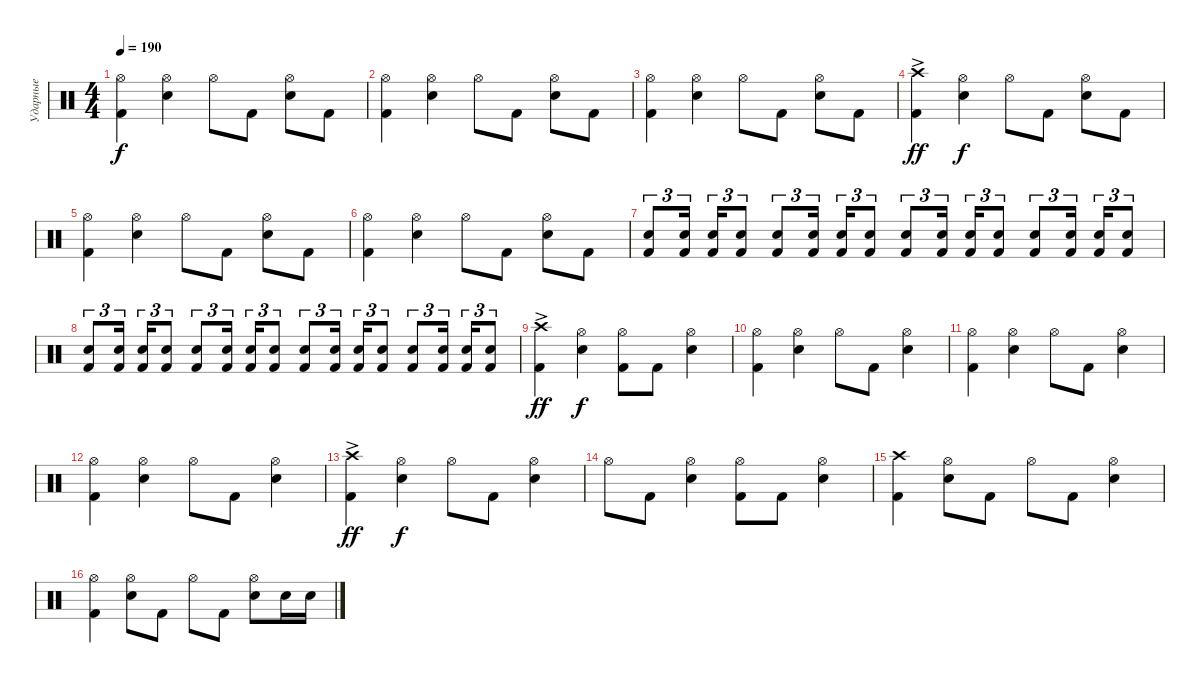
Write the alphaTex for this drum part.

\track ("Ударные" "Ударные") {instrument percussion}
\staff {score}
\articulation defaults
\ts (4 4)
\tempo 190
\clef neutral
\ks c
("Kick (hit) 2" "Hi-Hat (open)").4{dy f} ("Snare (hit) 2" "Hi-Hat (open)").4 "Hi-Hat (open)".8 "Kick (hit) 2".8 ("Snare (hit) 2" "Hi-Hat (open)").8 "Kick (hit) 2".8 |
("Kick (hit) 2" "Hi-Hat (open)").4 ("Snare (hit) 2" "Hi-Hat (open)").4 "Hi-Hat (open)".8 "Kick (hit) 2".8 ("Snare (hit) 2" "Hi-Hat (open)").8 "Kick (hit) 2".8 |
("Kick (hit) 2" "Hi-Hat (open)").4 ("Snare (hit) 2" "Hi-Hat (open)").4 "Hi-Hat (open)".8 "Kick (hit) 2".8 ("Snare (hit) 2" "Hi-Hat (open)").8 "Kick (hit) 2".8 |
("Kick (hit) 2" "Crash high (hit)"{ac}).4{dy ff} ("Snare (hit) 2" "Hi-Hat (open)").4{dy f} "Hi-Hat (open)".8 "Kick (hit) 2".8 ("Snare (hit) 2" "Hi-Hat (open)").8 "Kick (hit) 2".8 |
("Kick (hit) 2" "Hi-Hat (open)").4 ("Snare (hit) 2" "Hi-Hat (open)").4 "Hi-Hat (open)".8 "Kick (hit) 2".8 ("Snare (hit) 2" "Hi-Hat (open)").8 "Kick (hit) 2".8 |
("Kick (hit) 2" "Hi-Hat (open)").4 ("Snare (hit) 2" "Hi-Hat (open)").4 "Hi-Hat (open)".8 "Kick (hit) 2".8 ("Snare (hit) 2" "Hi-Hat (open)").8 "Kick (hit) 2".8 |
("Kick (hit) 2" "Electric Snare (hit)").8{tu (3 2)} ("Kick (hit) 2" "Electric Snare (hit)").16{tu (3 2) beam splitsecondary} ("Kick (hit) 2" "Electric Snare (hit)").16{tu (3 2)} ("Kick (hit) 2" "Snare (hit) 2").8{tu (3 2)} ("Kick (hit) 2" "Electric Snare (hit)").8{tu (3 2)} ("Kick (hit) 2" "Electric Snare (hit)").16{tu (3 2) beam splitsecondary} ("Kick (hit) 2" "Electric Snare (hit)").16{tu (3 2)} ("Kick (hit) 2" "Snare (hit) 2").8{tu (3 2)} ("Kick (hit) 2" "Electric Snare (hit)").8{tu (3 2)} ("Kick (hit) 2" "Electric Snare (hit)").16{tu (3 2) beam splitsecondary} ("Kick (hit) 2" "Electric Snare (hit)").16{tu (3 2)} ("Kick (hit) 2" "Snare (hit) 2").8{tu (3 2)} ("Kick (hit) 2" "Electric Snare (hit)").8{tu (3 2)} ("Kick (hit) 2" "Electric Snare (hit)").16{tu (3 2) beam splitsecondary} ("Kick (hit) 2" "Electric Snare (hit)").16{tu (3 2)} ("Kick (hit) 2" "Snare (hit) 2").8{tu (3 2)} |
("Kick (hit) 2" "Electric Snare (hit)").8{tu (3 2)} ("Kick (hit) 2" "Electric Snare (hit)").16{tu (3 2) beam splitsecondary} ("Kick (hit) 2" "Electric Snare (hit)").16{tu (3 2)} ("Kick (hit) 2" "Snare (hit) 2").8{tu (3 2)} ("Kick (hit) 2" "Electric Snare (hit)").8{tu (3 2)} ("Kick (hit) 2" "Electric Snare (hit)").16{tu (3 2) beam splitsecondary} ("Kick (hit) 2" "Electric Snare (hit)").16{tu (3 2)} ("Kick (hit) 2" "Snare (hit) 2").8{tu (3 2)} ("Kick (hit) 2" "Electric Snare (hit)").8{tu (3 2)} ("Kick (hit) 2" "Electric Snare (hit)").16{tu (3 2) beam splitsecondary} ("Kick (hit) 2" "Electric Snare (hit)").16{tu (3 2)} ("Kick (hit) 2" "Snare (hit) 2").8{tu (3 2)} ("Kick (hit) 2" "Electric Snare (hit)").8{tu (3 2)} ("Kick (hit) 2" "Electric Snare (hit)").16{tu (3 2) beam splitsecondary} ("Kick (hit) 2" "Electric Snare (hit)").16{tu (3 2)} ("Kick (hit) 2" "Snare (hit) 2").8{tu (3 2)} |
("Kick (hit) 2" "Crash high (hit)"{ac}).4{dy ff} ("Snare (hit) 2" "Hi-Hat (open)").4{dy f} ("Kick (hit) 2" "Hi-Hat (open)").8 "Kick (hit) 2".8 ("Snare (hit) 2" "Hi-Hat (open)").4 |
("Kick (hit) 2" "Hi-Hat (open)").4 ("Snare (hit) 2" "Hi-Hat (open)").4 "Hi-Hat (open)".8 "Kick (hit) 2".8 ("Snare (hit) 2" "Hi-Hat (open)").4 |
("Kick (hit) 2" "Hi-Hat (open)").4 ("Snare (hit) 2" "Hi-Hat (open)").4 "Hi-Hat (open)".8 "Kick (hit) 2".8 ("Snare (hit) 2" "Hi-Hat (open)").4 |
("Kick (hit) 2" "Hi-Hat (open)").4 ("Snare (hit) 2" "Hi-Hat (open)").4 "Hi-Hat (open)".8 "Kick (hit) 2".8 ("Snare (hit) 2" "Hi-Hat (open)").4 |
("Kick (hit) 2" "Crash high (hit)"{ac}).4{dy ff} ("Snare (hit) 2" "Hi-Hat (open)").4{dy f} "Hi-Hat (open)".8 "Kick (hit) 2".8 ("Snare (hit) 2" "Hi-Hat (open)").4 |
"Hi-Hat (open)".8 "Kick (hit) 2".8 ("Snare (hit) 2" "Hi-Hat (open)").4 ("Kick (hit) 2" "Hi-Hat (open)").8 "Kick (hit) 2".8 ("Snare (hit) 2" "Hi-Hat (open)").4 |
("Kick (hit) 2" "Crash high (hit)").4 ("Snare (hit) 2" "Hi-Hat (open)").8 "Kick (hit) 2".8 "Hi-Hat (open)".8 "Kick (hit) 2".8 ("Snare (hit) 2" "Hi-Hat (open)").4 |
("Kick (hit) 2" "Hi-Hat (open)").4 ("Snare (hit) 2" "Hi-Hat (open)").8 "Kick (hit) 2".8 "Hi-Hat (open)".8 "Kick (hit) 2".8 ("Snare (hit) 2" "Hi-Hat (open)").8 "Snare (hit) 2".16 "Snare (hit) 2".16
